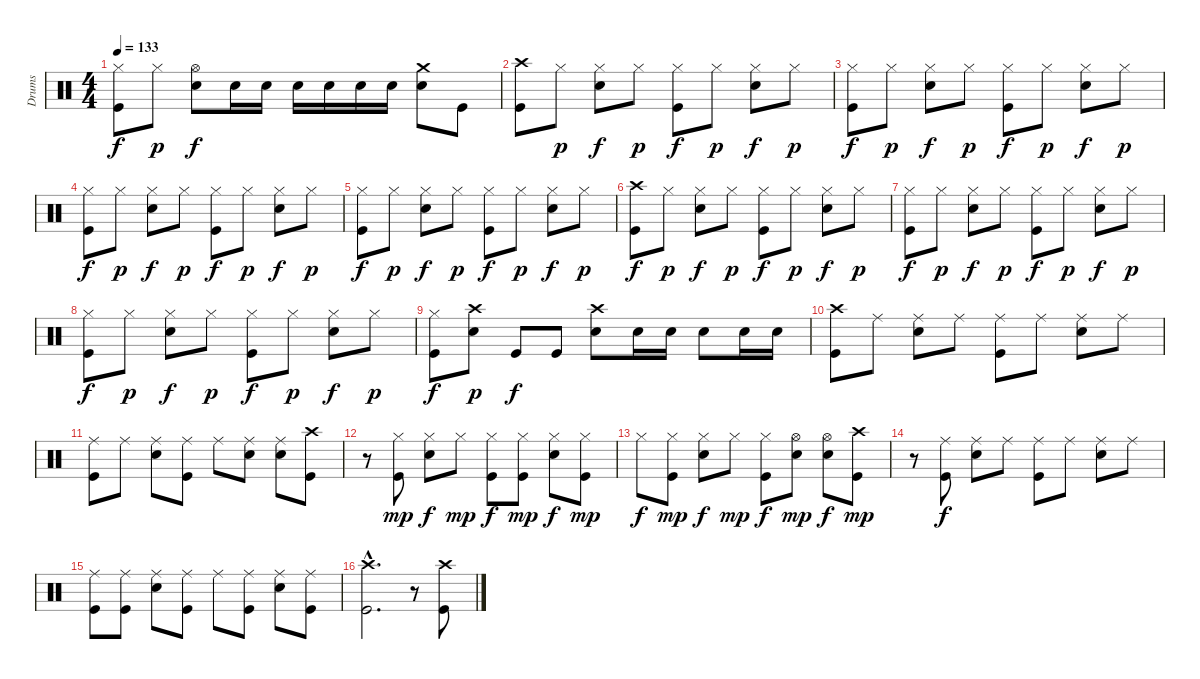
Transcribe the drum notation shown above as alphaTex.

\track ("Drums" "Drums") {instrument percussion}
\staff {score}
\articulation defaults
\ts (4 4)
\tempo 133
\clef neutral
\ks c
("Hi-Hat (closed)" "Kick (hit)").8{dy f} "Hi-Hat (closed)".8{dy p} ("Hi-Hat (open)" "Snare (hit) 2").8{dy f} "Snare (hit) 2".16 "Snare (hit) 2".16 "Snare (hit) 2".16 "Snare (hit) 2".16 "Snare (hit) 2".16 "Snare (hit) 2".16 ("Crash medium (hit)" "Snare (hit) 2").8 "Kick (hit)".8 |
("Crash high (hit)" "Kick (hit)").8 "Hi-Hat (closed)".8{dy p} ("Hi-Hat (closed)" "Snare (hit) 2").8{dy f} "Hi-Hat (closed)".8{dy p} ("Hi-Hat (closed)" "Kick (hit)").8{dy f} "Hi-Hat (closed)".8{dy p} ("Hi-Hat (closed)" "Snare (hit) 2").8{dy f} "Hi-Hat (closed)".8{dy p} |
("Hi-Hat (closed)" "Kick (hit)").8{dy f} "Hi-Hat (closed)".8{dy p} ("Hi-Hat (closed)" "Snare (hit) 2").8{dy f} "Hi-Hat (closed)".8{dy p} ("Hi-Hat (closed)" "Kick (hit)").8{dy f} "Hi-Hat (closed)".8{dy p} ("Hi-Hat (closed)" "Snare (hit) 2").8{dy f} "Hi-Hat (closed)".8{dy p} |
("Hi-Hat (closed)" "Kick (hit)").8{dy f} "Hi-Hat (closed)".8{dy p} ("Hi-Hat (closed)" "Snare (hit) 2").8{dy f} "Hi-Hat (closed)".8{dy p} ("Hi-Hat (closed)" "Kick (hit)").8{dy f} "Hi-Hat (closed)".8{dy p} ("Hi-Hat (closed)" "Snare (hit) 2").8{dy f} "Hi-Hat (closed)".8{dy p} |
("Hi-Hat (closed)" "Kick (hit)").8{dy f} "Hi-Hat (closed)".8{dy p} ("Hi-Hat (closed)" "Snare (hit) 2").8{dy f} "Hi-Hat (closed)".8{dy p} ("Hi-Hat (closed)" "Kick (hit)").8{dy f} "Hi-Hat (closed)".8{dy p} ("Hi-Hat (closed)" "Snare (hit) 2").8{dy f} "Hi-Hat (closed)".8{dy p} |
("Crash high (hit)" "Kick (hit)").8{dy f} "Hi-Hat (closed)".8{dy p} ("Hi-Hat (closed)" "Snare (hit) 2").8{dy f} "Hi-Hat (closed)".8{dy p} ("Hi-Hat (closed)" "Kick (hit)").8{dy f} "Hi-Hat (closed)".8{dy p} ("Hi-Hat (closed)" "Snare (hit) 2").8{dy f} "Hi-Hat (closed)".8{dy p} |
("Hi-Hat (closed)" "Kick (hit)").8{dy f} "Hi-Hat (closed)".8{dy p} ("Hi-Hat (closed)" "Snare (hit) 2").8{dy f} "Hi-Hat (closed)".8{dy p} ("Hi-Hat (closed)" "Kick (hit)").8{dy f} "Hi-Hat (closed)".8{dy p} ("Hi-Hat (closed)" "Snare (hit) 2").8{dy f} "Hi-Hat (closed)".8{dy p} |
("Hi-Hat (closed)" "Kick (hit)").8{dy f} "Hi-Hat (closed)".8{dy p} ("Hi-Hat (closed)" "Snare (hit) 2").8{dy f} "Hi-Hat (closed)".8{dy p} ("Hi-Hat (closed)" "Kick (hit)").8{dy f} "Hi-Hat (closed)".8{dy p} ("Hi-Hat (closed)" "Snare (hit) 2").8{dy f} "Hi-Hat (closed)".8{dy p} |
("Hi-Hat (closed)" "Kick (hit)").8{dy f} ("Crash high (hit)" "Snare (hit) 2").8{dy p} "Kick (hit)".8{dy f} "Kick (hit)".8 ("Crash high (hit)" "Snare (hit) 2").8 "Snare (hit) 2".16 "Snare (hit) 2".16 "Snare (hit) 2".8 "Snare (hit) 2".16 "Snare (hit) 2".16 |
("Crash high (hit)" "Kick (hit)").8 "Ride (middle)".8 ("Ride (middle)" "Snare (hit) 2").8 "Ride (middle)".8 ("Ride (middle)" "Kick (hit)").8 "Ride (middle)".8 ("Ride (middle)" "Snare (hit) 2").8 "Ride (middle)".8 |
("Ride (middle)" "Kick (hit)").8 "Ride (middle)".8 ("Ride (middle)" "Snare (hit) 2").8 ("Ride (middle)" "Kick (hit)").8 "Ride (middle)".8 ("Ride (middle)" "Snare (hit) 2").8 ("Ride (middle)" "Snare (hit) 2").8 ("Crash high (hit)" "Kick (hit)").8 |
r.8 ("Hi-Hat (closed)" "Kick (hit)").8{dy mp} ("Hi-Hat (closed)" "Snare (hit) 2").8{dy f} "Hi-Hat (closed)".8{dy mp} ("Hi-Hat (closed)" "Kick (hit)").8{dy f} ("Hi-Hat (closed)" "Kick (hit)").8{dy mp} ("Hi-Hat (closed)" "Snare (hit) 2").8{dy f} ("Hi-Hat (closed)" "Kick (hit)").8{dy mp} |
"Hi-Hat (closed)".8{dy f} ("Hi-Hat (closed)" "Kick (hit)").8{dy mp} ("Hi-Hat (closed)" "Snare (hit) 2").8{dy f} "Hi-Hat (closed)".8{dy mp} ("Hi-Hat (closed)" "Kick (hit)").8{dy f} ("Hi-Hat (open)" "Snare (hit) 2").8{dy mp} ("Hi-Hat (open)" "Snare (hit) 2").8{dy f} ("Crash high (hit)" "Kick (hit)").8{dy mp} |
r.8 ("Ride (middle)" "Kick (hit)").8{dy f} ("Ride (middle)" "Snare (hit) 2").8 "Ride (middle)".8 ("Ride (middle)" "Kick (hit)").8 "Ride (middle)".8 ("Ride (middle)" "Snare (hit) 2").8 "Ride (middle)".8 |
("Ride (middle)" "Kick (hit)").8 ("Ride (middle)" "Kick (hit)").8 ("Ride (middle)" "Snare (hit) 2").8 ("Ride (middle)" "Kick (hit)").8 "Ride (middle)".8 ("Ride (middle)" "Kick (hit)").8 ("Ride (middle)" "Snare (hit) 2").8 ("Ride (middle)" "Kick (hit)").8 |
("Crash high (hit)"{hac} "Kick (hit)"{hac}).2{d} r.8 ("Crash high (hit)" "Kick (hit)").8
